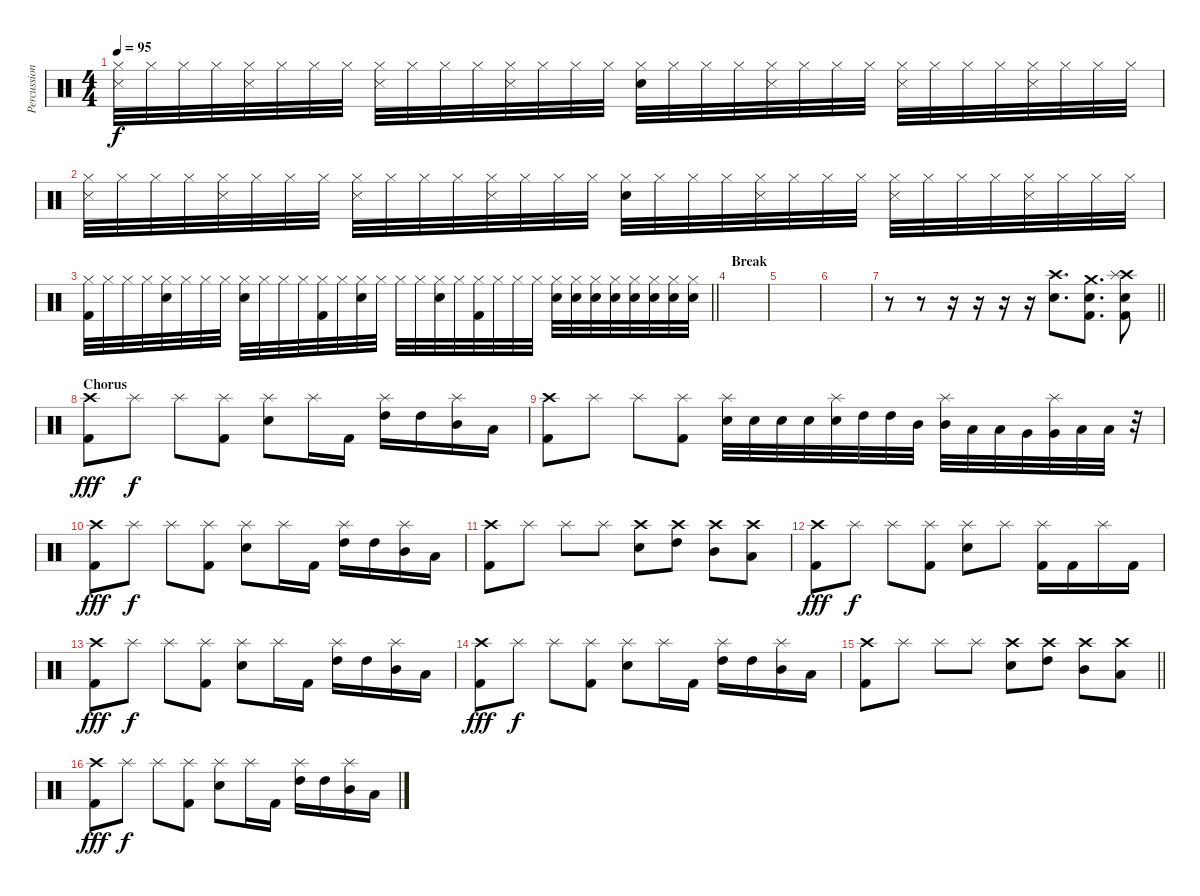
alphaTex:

\track ("Percussion" "Percussion") {instrument percussion}
\staff {score}
\articulation defaults
\ts (4 4)
\tempo 95
\clef neutral
\ks c
("Hi-Hat (closed)" "Snare (side stick) 3").32{dy f} "Hi-Hat (closed)".32 "Hi-Hat (closed)".32 "Hi-Hat (closed)".32 ("Hi-Hat (closed)" "Snare (side stick) 3").32 "Hi-Hat (closed)".32 "Hi-Hat (closed)".32 "Hi-Hat (closed)".32 ("Hi-Hat (closed)" "Snare (side stick) 3").32 "Hi-Hat (closed)".32 "Hi-Hat (closed)".32 "Hi-Hat (closed)".32 ("Hi-Hat (closed)" "Snare (side stick) 3").32 "Hi-Hat (closed)".32 "Hi-Hat (closed)".32 "Hi-Hat (closed)".32 ("Hi-Hat (closed)" "Electric Snare (hit)").32 "Hi-Hat (closed)".32 "Hi-Hat (closed)".32 "Hi-Hat (closed)".32 ("Hi-Hat (closed)" "Snare (side stick) 3").32 "Hi-Hat (closed)".32 "Hi-Hat (closed)".32 "Hi-Hat (closed)".32 ("Hi-Hat (closed)" "Snare (side stick) 3").32 "Hi-Hat (closed)".32 "Hi-Hat (closed)".32 "Hi-Hat (closed)".32 ("Hi-Hat (closed)" "Snare (side stick) 3").32 "Hi-Hat (closed)".32 "Hi-Hat (closed)".32 "Hi-Hat (closed)".32 |
("Hi-Hat (closed)" "Snare (side stick) 3").32 "Hi-Hat (closed)".32 "Hi-Hat (closed)".32 "Hi-Hat (closed)".32 ("Hi-Hat (closed)" "Snare (side stick) 3").32 "Hi-Hat (closed)".32 "Hi-Hat (closed)".32 "Hi-Hat (closed)".32 ("Hi-Hat (closed)" "Snare (side stick) 3").32 "Hi-Hat (closed)".32 "Hi-Hat (closed)".32 "Hi-Hat (closed)".32 ("Hi-Hat (closed)" "Snare (side stick) 3").32 "Hi-Hat (closed)".32 "Hi-Hat (closed)".32 "Hi-Hat (closed)".32 ("Hi-Hat (closed)" "Electric Snare (hit)").32 "Hi-Hat (closed)".32 "Hi-Hat (closed)".32 "Hi-Hat (closed)".32 ("Hi-Hat (closed)" "Snare (side stick) 3").32 "Hi-Hat (closed)".32 "Hi-Hat (closed)".32 "Hi-Hat (closed)".32 ("Hi-Hat (closed)" "Snare (side stick) 3").32 "Hi-Hat (closed)".32 "Hi-Hat (closed)".32 "Hi-Hat (closed)".32 ("Hi-Hat (closed)" "Snare (side stick) 3").32 "Hi-Hat (closed)".32 "Hi-Hat (closed)".32 "Hi-Hat (closed)".32 |
\barLineRight lightlight
("Hi-Hat (closed)" "Kick (hit) 2").32 "Hi-Hat (closed)".32 "Hi-Hat (closed)".32 "Hi-Hat (closed)".32 ("Hi-Hat (closed)" "Electric Snare (hit)").32 "Hi-Hat (closed)".32 "Hi-Hat (closed)".32 "Hi-Hat (closed)".32 ("Hi-Hat (closed)" "Electric Snare (hit)").32 "Hi-Hat (closed)".32 "Hi-Hat (closed)".32 "Hi-Hat (closed)".32 ("Hi-Hat (closed)" "Kick (hit) 2").32 "Hi-Hat (closed)".32 ("Hi-Hat (closed)" "Electric Snare (hit)").32 "Hi-Hat (closed)".32 "Hi-Hat (closed)".32 "Hi-Hat (closed)".32 ("Hi-Hat (closed)" "Electric Snare (hit)").32 "Hi-Hat (closed)".32 ("Hi-Hat (closed)" "Kick (hit) 2").32 "Hi-Hat (closed)".32 "Hi-Hat (closed)".32 "Hi-Hat (closed)".32 ("Hi-Hat (closed)" "Electric Snare (hit)").32 ("Hi-Hat (closed)" "Electric Snare (hit)").32 ("Hi-Hat (closed)" "Electric Snare (hit)").32 ("Hi-Hat (closed)" "Electric Snare (hit)").32 ("Hi-Hat (closed)" "Electric Snare (hit)").32 ("Hi-Hat (closed)" "Electric Snare (hit)").32 ("Hi-Hat (closed)" "Electric Snare (hit)").32 ("Hi-Hat (closed)" "Electric Snare (hit)").32 |
\section ("" "Break")
|
|
|
\barLineRight lightlight
r.8 r.8 r.16 r.16 r.16 r.16 ("Crash high (hit)" "Electric Snare (hit)").8{d} ("Crash medium (hit)" "Electric Snare (hit)" "Kick (hit) 2").8{d} ("Crash high (hit)" "Splash (hit)" "Electric Snare (hit)" "Kick (hit) 2").8 |
\section ("" "Chorus")
("Crash high (hit)" "Kick (hit) 2").8{dy fff} "Splash (hit)".8{dy f} "Splash (hit)".8 ("Splash (hit)" "Kick (hit) 2").8 ("Splash (hit)" "Electric Snare (hit)").8 "Splash (hit)".16 "Kick (hit) 2".16 ("Splash (hit)" "High Tom (hit)").16 "High Tom (hit)".16 ("Splash (hit)" "Mid Tom (hit)").16 "Low Tom (hit)".16 |
("Crash high (hit)" "Kick (hit) 2").8 "Splash (hit)".8 "Splash (hit)".8 ("Splash (hit)" "Kick (hit) 2").8 ("Splash (hit)" "Electric Snare (hit)").32 "Electric Snare (hit)".32 "Electric Snare (hit)".32 "Electric Snare (hit)".32 ("Splash (hit)" "Electric Snare (hit)").32 "High Tom (hit)".32 "High Tom (hit)".32 "Mid Tom (hit)".32 ("Splash (hit)" "Mid Tom (hit)").32 "Low Tom (hit)".32 "Low Tom (hit)".32 "Very Low Tom (hit)".32 ("Splash (hit)" "Very Low Tom (hit)").32 "Low Floor Tom (hit)".32 "Low Floor Tom (hit)".32 r.32 |
("Crash high (hit)" "Kick (hit) 2").8{dy fff} "Splash (hit)".8{dy f} "Splash (hit)".8 ("Splash (hit)" "Kick (hit) 2").8 ("Splash (hit)" "Electric Snare (hit)").8 "Splash (hit)".16 "Kick (hit) 2".16 ("Splash (hit)" "High Tom (hit)").16 "High Tom (hit)".16 ("Splash (hit)" "Mid Tom (hit)").16 "Low Tom (hit)".16 |
("Crash high (hit)" "Kick (hit) 2").8 "Splash (hit)".8 "Splash (hit)".8 "Splash (hit)".8 ("Crash high (hit)" "Electric Snare (hit)").8 ("Crash high (hit)" "High Tom (hit)").8 ("Crash high (hit)" "Mid Tom (hit)").8 ("Crash high (hit)" "Low Tom (hit)").8 |
("Crash high (hit)" "Kick (hit) 2").8{dy fff} "Splash (hit)".8{dy f} "Splash (hit)".8 ("Splash (hit)" "Kick (hit) 2").8 ("Splash (hit)" "Electric Snare (hit)").8 "Splash (hit)".8 ("Splash (hit)" "Kick (hit) 2").16 "Kick (hit) 2".16 "Splash (hit)".16 "Kick (hit) 2".16 |
("Crash high (hit)" "Kick (hit) 2").8{dy fff} "Splash (hit)".8{dy f} "Splash (hit)".8 ("Splash (hit)" "Kick (hit) 2").8 ("Splash (hit)" "Electric Snare (hit)").8 "Splash (hit)".16 "Kick (hit) 2".16 ("Splash (hit)" "High Tom (hit)").16 "High Tom (hit)".16 ("Splash (hit)" "Mid Tom (hit)").16 "Low Tom (hit)".16 |
("Crash high (hit)" "Kick (hit) 2").8{dy fff} "Splash (hit)".8{dy f} "Splash (hit)".8 ("Splash (hit)" "Kick (hit) 2").8 ("Splash (hit)" "Electric Snare (hit)").8 "Splash (hit)".16 "Kick (hit) 2".16 ("Splash (hit)" "High Tom (hit)").16 "High Tom (hit)".16 ("Splash (hit)" "Mid Tom (hit)").16 "Low Tom (hit)".16 |
\barLineRight lightlight
("Crash high (hit)" "Kick (hit) 2").8 "Splash (hit)".8 "Splash (hit)".8 "Splash (hit)".8 ("Crash high (hit)" "Electric Snare (hit)").8 ("Crash high (hit)" "High Tom (hit)").8 ("Crash high (hit)" "Mid Tom (hit)").8 ("Crash high (hit)" "Low Tom (hit)").8 |
\section ("" "")
("Crash high (hit)" "Kick (hit) 2").8{dy fff} "Splash (hit)".8{dy f} "Splash (hit)".8 ("Splash (hit)" "Kick (hit) 2").8 ("Splash (hit)" "Electric Snare (hit)").8 "Splash (hit)".16 "Kick (hit) 2".16 ("Splash (hit)" "High Tom (hit)").16 "High Tom (hit)".16 ("Splash (hit)" "Mid Tom (hit)").16 "Low Tom (hit)".16
